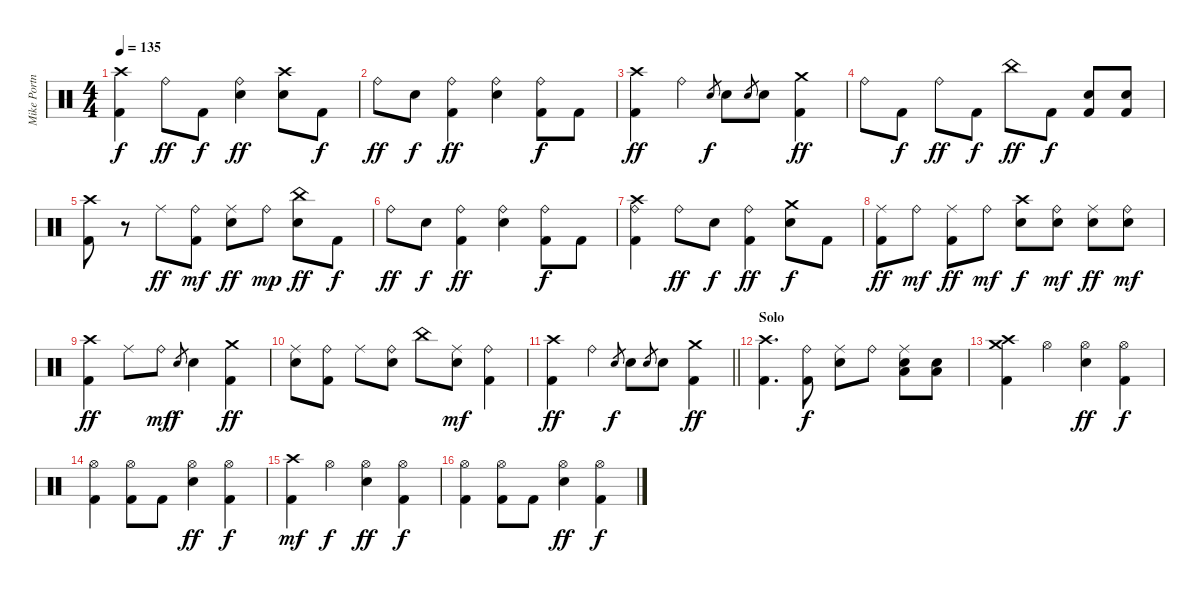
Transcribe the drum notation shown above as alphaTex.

\track ("Mike Portnoy" "Mike Portn") {instrument percussion}
\staff {score}
\articulation defaults
\ts (4 4)
\tempo 135
\clef neutral
\ks c
("Crash high (hit)" "Kick (hit) 2").4{dy f} "Ride (bell)".8{dy ff} "Kick (hit) 2".8{dy f} ("Ride (bell)" "Snare (hit) 2").4{dy ff} ("Crash high (hit)" "Snare (hit) 2").8 "Kick (hit) 2".8{dy f} |
"Ride (bell)".8{dy ff} "Snare (hit) 2".8{dy f} ("Ride (bell)" "Kick (hit) 2").4{dy ff} ("Ride (bell)" "Snare (hit) 2").4 ("Ride (bell)" "Kick (hit) 2").8{dy f} "Kick (hit) 2".8 |
("Crash high (hit)" "Kick (hit) 2").4{dy ff} "Ride (bell)".4 "Electric Snare (hit)".8{gr dy f} "Electric Snare (hit)".8 "Electric Snare (hit)".8{gr} "Electric Snare (hit)".8 ("Crash medium (hit)" "Kick (hit) 2").4{dy ff} |
"Ride (bell)".8 "Kick (hit) 2".8{dy f} "Ride (bell)".8{dy ff} "Kick (hit) 2".8{dy f} "China (hit)".8{dy ff} "Kick (hit) 2".8{dy f} ("Electric Snare (hit)" "Kick (hit) 2").8 ("Electric Snare (hit)" "Kick (hit) 2").8 |
("Crash high (hit)" "Kick (hit) 2").8 r.8 "Ride (middle)".8{dy ff} ("Ride (bell)" "Kick (hit) 2").8{dy mf} ("Ride (middle)" "Electric Snare (hit)").8{dy ff} "Ride (bell)".8{dy mp} ("China (hit)" "Electric Snare (hit)").8{dy ff} "Kick (hit) 2".8{dy f} |
"Ride (bell)".8{dy ff} "Snare (hit) 2".8{dy f} ("Ride (bell)" "Kick (hit) 2").4{dy ff} ("Ride (bell)" "Snare (hit) 2").4 ("Ride (bell)" "Kick (hit) 2").8{dy f} "Kick (hit) 2".8 |
("Crash high (hit)" "Ride (bell)" "Kick (hit) 2").4 "Ride (bell)".8{dy ff} "Snare (hit) 2".8{dy f} ("Ride (bell)" "Kick (hit) 2").4{dy ff} ("Crash medium (hit)" "Snare (hit) 2").8{dy f} "Kick (hit) 2".8 |
("Ride (middle)" "Kick (hit) 2").8{dy ff} "Ride (bell)".8{dy mf} ("Ride (middle)" "Kick (hit) 2").8{dy ff} "Ride (bell)".8{dy mf} ("Crash high (hit)" "Electric Snare (hit)").8{dy f} ("Ride (bell)" "Electric Snare (hit)").8{dy mf} ("Ride (middle)" "Electric Snare (hit)").8{dy ff} ("Ride (bell)" "Electric Snare (hit)").8{dy mf} |
("Crash high (hit)" "Kick (hit) 2").4{dy ff} "Ride (middle)".8 "Ride (bell)".8{dy mf} "Electric Snare (hit)".8{gr dy f} "Electric Snare (hit)".4 ("Crash medium (hit)" "Kick (hit) 2").4{dy ff} |
("Ride (middle)" "Electric Snare (hit)").8 ("Ride (bell)" "Kick (hit) 2").8 "Ride (middle)".8 ("Ride (bell)" "Electric Snare (hit)").8 "China (hit)".8 ("Ride (middle)" "Electric Snare (hit)").8{dy mf} ("Ride (bell)" "Kick (hit) 2").4 |
\barLineRight lightlight
("Crash high (hit)" "Kick (hit) 2").4{dy ff} "Ride (bell)".4 "Electric Snare (hit)".8{gr dy f} "Electric Snare (hit)".8 "Electric Snare (hit)".8{gr} "Electric Snare (hit)".8 ("Crash medium (hit)" "Kick (hit) 2").4{dy ff} |
\section ("" "Solo")
("Crash high (hit)" "Kick (hit) 2").4{d} ("Ride (bell)" "Kick (hit) 2").8{dy f} ("Ride (middle)" "Electric Snare (hit)").8 "Ride (bell)".8 ("Ride (middle)" "Electric Snare (hit)" "Low Floor Tom (hit)").8 ("Electric Snare (hit)" "Low Floor Tom (hit)").8 |
("Crash medium (hit)" "Crash high (hit)" "Kick (hit) 2").4 "Hi-Hat (open)".4 ("Hi-Hat (open)" "Electric Snare (hit)").4{dy ff} ("Hi-Hat (open)" "Kick (hit) 2").4{dy f} |
("Hi-Hat (open)" "Kick (hit) 2").4 ("Hi-Hat (open)" "Kick (hit) 2").8 "Kick (hit) 2".8 ("Hi-Hat (open)" "Electric Snare (hit)").4{dy ff} ("Hi-Hat (open)" "Kick (hit) 2").4{dy f} |
("Crash high (hit)" "Kick (hit) 2").4{dy mf} "Hi-Hat (open)".4{dy f} ("Hi-Hat (open)" "Electric Snare (hit)").4{dy ff} ("Hi-Hat (open)" "Kick (hit) 2").4{dy f} |
("Hi-Hat (open)" "Kick (hit) 2").4 ("Hi-Hat (open)" "Kick (hit) 2").8 "Kick (hit) 2".8 ("Hi-Hat (open)" "Electric Snare (hit)").4{dy ff} ("Hi-Hat (open)" "Kick (hit) 2").4{dy f}
